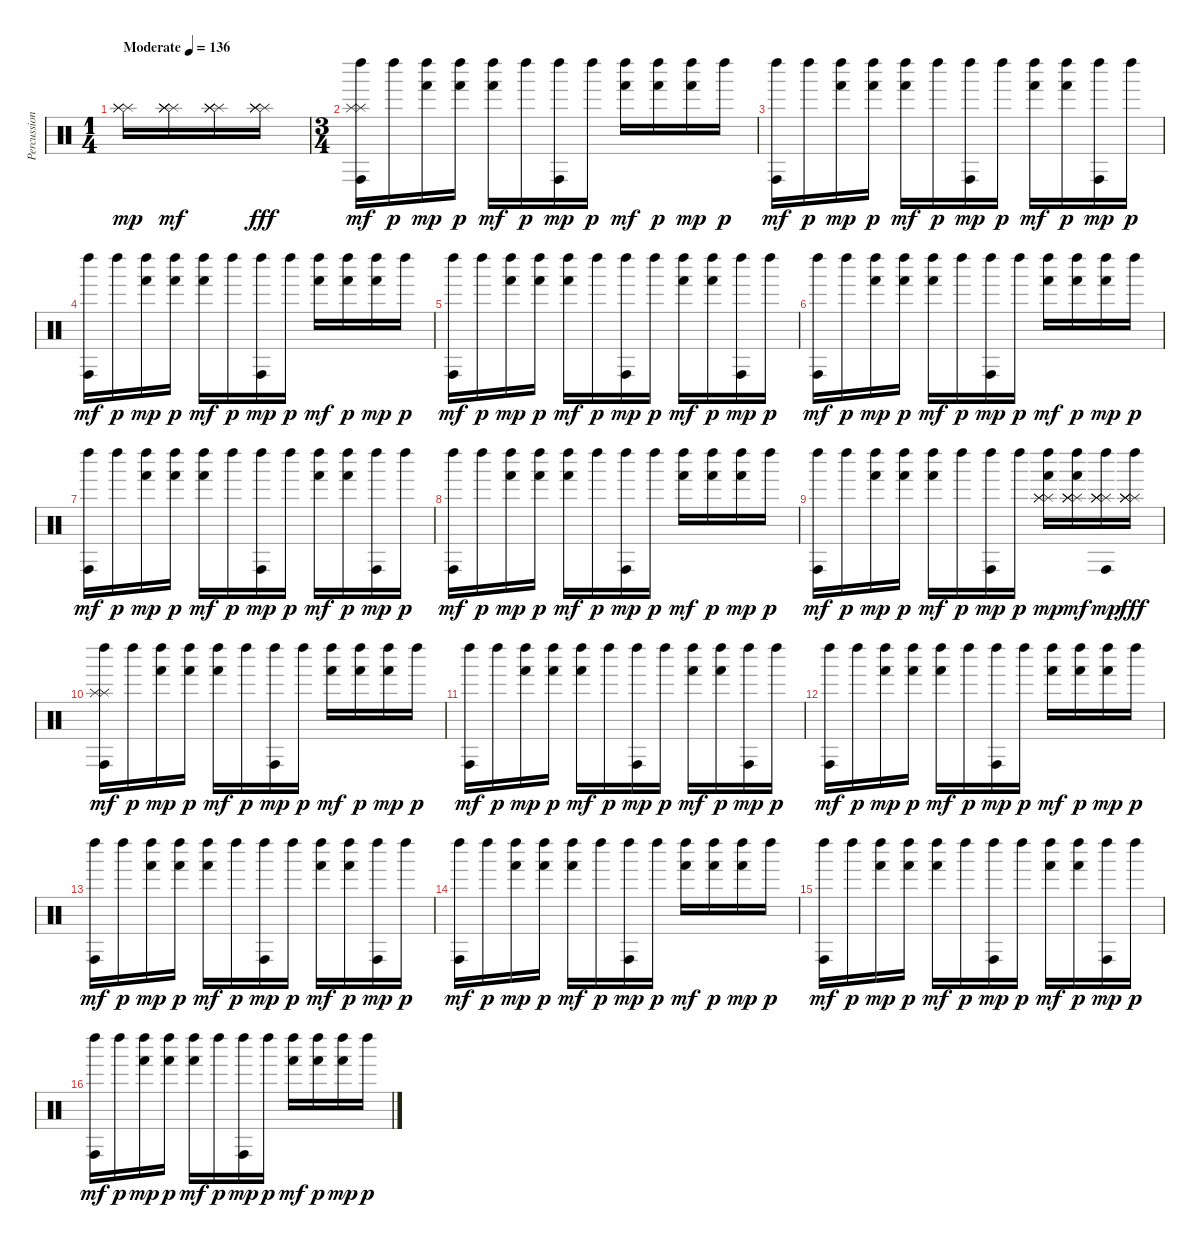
\track ("Percussion" "Percussion") {instrument percussion}
\staff {score}
\articulation defaults
\ts (1 4)
\tempo (136 "Moderate")
\clef neutral
\ks c
("Splash (hit)" "Splash (hit)" "Splash (hit)").16{dy mp} ("Splash (hit)" "Splash (hit)" "Splash (hit)" "Splash (hit)").16{dy mf} ("Splash (hit)" "Splash (hit)" "Splash (hit)" "Splash (hit)").16 ("Splash (hit)" "Splash (hit)" "Splash (hit)" "Splash (hit)").16{dy fff} |
\ts (3 4)
("Splash (hit)" "Splash (hit)" "Conga high (hit)" "Left Maraca (hit)").16{dy mf} "Left Maraca (hit)".16{dy p} ("Hand (hit)" "Left Maraca (hit)").16{dy mp} ("Hand (hit)" "Left Maraca (hit)").16{dy p} ("Hand (hit)" "Left Maraca (hit)").16{dy mf} "Left Maraca (hit)".16{dy p} ("Conga high (hit)" "Left Maraca (hit)").16{dy mp} "Left Maraca (hit)".16{dy p} ("Hand (hit)" "Left Maraca (hit)").16{dy mf} ("Hand (hit)" "Left Maraca (hit)").16{dy p} ("Hand (hit)" "Left Maraca (hit)").16{dy mp} "Left Maraca (hit)".16{dy p} |
("Conga high (hit)" "Left Maraca (hit)").16{dy mf} "Left Maraca (hit)".16{dy p} ("Hand (hit)" "Left Maraca (hit)").16{dy mp} ("Hand (hit)" "Left Maraca (hit)").16{dy p} ("Hand (hit)" "Left Maraca (hit)").16{dy mf} "Left Maraca (hit)".16{dy p} ("Conga high (hit)" "Left Maraca (hit)").16{dy mp} "Left Maraca (hit)".16{dy p} ("Hand (hit)" "Left Maraca (hit)").16{dy mf} ("Hand (hit)" "Left Maraca (hit)").16{dy p} ("Conga high (hit)" "Left Maraca (hit)").16{dy mp} "Left Maraca (hit)".16{dy p} |
("Conga high (hit)" "Left Maraca (hit)").16{dy mf} "Left Maraca (hit)".16{dy p} ("Hand (hit)" "Left Maraca (hit)").16{dy mp} ("Hand (hit)" "Left Maraca (hit)").16{dy p} ("Hand (hit)" "Left Maraca (hit)").16{dy mf} "Left Maraca (hit)".16{dy p} ("Conga high (hit)" "Left Maraca (hit)").16{dy mp} "Left Maraca (hit)".16{dy p} ("Hand (hit)" "Left Maraca (hit)").16{dy mf} ("Hand (hit)" "Left Maraca (hit)").16{dy p} ("Hand (hit)" "Left Maraca (hit)").16{dy mp} "Left Maraca (hit)".16{dy p} |
("Conga high (hit)" "Left Maraca (hit)").16{dy mf} "Left Maraca (hit)".16{dy p} ("Hand (hit)" "Left Maraca (hit)").16{dy mp} ("Hand (hit)" "Left Maraca (hit)").16{dy p} ("Hand (hit)" "Left Maraca (hit)").16{dy mf} "Left Maraca (hit)".16{dy p} ("Conga high (hit)" "Left Maraca (hit)").16{dy mp} "Left Maraca (hit)".16{dy p} ("Hand (hit)" "Left Maraca (hit)").16{dy mf} ("Hand (hit)" "Left Maraca (hit)").16{dy p} ("Conga high (hit)" "Left Maraca (hit)").16{dy mp} "Left Maraca (hit)".16{dy p} |
("Conga high (hit)" "Left Maraca (hit)").16{dy mf} "Left Maraca (hit)".16{dy p} ("Hand (hit)" "Left Maraca (hit)").16{dy mp} ("Hand (hit)" "Left Maraca (hit)").16{dy p} ("Hand (hit)" "Left Maraca (hit)").16{dy mf} "Left Maraca (hit)".16{dy p} ("Conga high (hit)" "Left Maraca (hit)").16{dy mp} "Left Maraca (hit)".16{dy p} ("Hand (hit)" "Left Maraca (hit)").16{dy mf} ("Hand (hit)" "Left Maraca (hit)").16{dy p} ("Hand (hit)" "Left Maraca (hit)").16{dy mp} "Left Maraca (hit)".16{dy p} |
("Conga high (hit)" "Left Maraca (hit)").16{dy mf} "Left Maraca (hit)".16{dy p} ("Hand (hit)" "Left Maraca (hit)").16{dy mp} ("Hand (hit)" "Left Maraca (hit)").16{dy p} ("Hand (hit)" "Left Maraca (hit)").16{dy mf} "Left Maraca (hit)".16{dy p} ("Conga high (hit)" "Left Maraca (hit)").16{dy mp} "Left Maraca (hit)".16{dy p} ("Hand (hit)" "Left Maraca (hit)").16{dy mf} ("Hand (hit)" "Left Maraca (hit)").16{dy p} ("Conga high (hit)" "Left Maraca (hit)").16{dy mp} "Left Maraca (hit)".16{dy p} |
("Conga high (hit)" "Left Maraca (hit)").16{dy mf} "Left Maraca (hit)".16{dy p} ("Hand (hit)" "Left Maraca (hit)").16{dy mp} ("Hand (hit)" "Left Maraca (hit)").16{dy p} ("Hand (hit)" "Left Maraca (hit)").16{dy mf} "Left Maraca (hit)".16{dy p} ("Conga high (hit)" "Left Maraca (hit)").16{dy mp} "Left Maraca (hit)".16{dy p} ("Hand (hit)" "Left Maraca (hit)").16{dy mf} ("Hand (hit)" "Left Maraca (hit)").16{dy p} ("Hand (hit)" "Left Maraca (hit)").16{dy mp} "Left Maraca (hit)".16{dy p} |
("Conga high (hit)" "Left Maraca (hit)").16{dy mf} "Left Maraca (hit)".16{dy p} ("Hand (hit)" "Left Maraca (hit)").16{dy mp} ("Hand (hit)" "Left Maraca (hit)").16{dy p} ("Hand (hit)" "Left Maraca (hit)").16{dy mf} "Left Maraca (hit)".16{dy p} ("Conga high (hit)" "Left Maraca (hit)").16{dy mp} "Left Maraca (hit)".16{dy p} ("Hand (hit)" "Splash (hit)" "Left Maraca (hit)" "Splash (hit)" "Splash (hit)").16{dy mp} ("Splash (hit)" "Hand (hit)" "Splash (hit)" "Left Maraca (hit)" "Splash (hit)" "Splash (hit)").16{dy mf} ("Splash (hit)" "Conga high (hit)" "Splash (hit)" "Left Maraca (hit)" "Splash (hit)" "Splash (hit)").16{dy mp} ("Splash (hit)" "Splash (hit)" "Left Maraca (hit)" "Splash (hit)" "Splash (hit)").16{dy fff} |
("Splash (hit)" "Splash (hit)" "Conga high (hit)" "Left Maraca (hit)").16{dy mf} "Left Maraca (hit)".16{dy p} ("Hand (hit)" "Left Maraca (hit)").16{dy mp} ("Hand (hit)" "Left Maraca (hit)").16{dy p} ("Hand (hit)" "Left Maraca (hit)").16{dy mf} "Left Maraca (hit)".16{dy p} ("Conga high (hit)" "Left Maraca (hit)").16{dy mp} "Left Maraca (hit)".16{dy p} ("Hand (hit)" "Left Maraca (hit)").16{dy mf} ("Hand (hit)" "Left Maraca (hit)").16{dy p} ("Hand (hit)" "Left Maraca (hit)").16{dy mp} "Left Maraca (hit)".16{dy p} |
("Conga high (hit)" "Left Maraca (hit)").16{dy mf} "Left Maraca (hit)".16{dy p} ("Hand (hit)" "Left Maraca (hit)").16{dy mp} ("Hand (hit)" "Left Maraca (hit)").16{dy p} ("Hand (hit)" "Left Maraca (hit)").16{dy mf} "Left Maraca (hit)".16{dy p} ("Conga high (hit)" "Left Maraca (hit)").16{dy mp} "Left Maraca (hit)".16{dy p} ("Hand (hit)" "Left Maraca (hit)").16{dy mf} ("Hand (hit)" "Left Maraca (hit)").16{dy p} ("Conga high (hit)" "Left Maraca (hit)").16{dy mp} "Left Maraca (hit)".16{dy p} |
("Conga high (hit)" "Left Maraca (hit)").16{dy mf} "Left Maraca (hit)".16{dy p} ("Hand (hit)" "Left Maraca (hit)").16{dy mp} ("Hand (hit)" "Left Maraca (hit)").16{dy p} ("Hand (hit)" "Left Maraca (hit)").16{dy mf} "Left Maraca (hit)".16{dy p} ("Conga high (hit)" "Left Maraca (hit)").16{dy mp} "Left Maraca (hit)".16{dy p} ("Hand (hit)" "Left Maraca (hit)").16{dy mf} ("Hand (hit)" "Left Maraca (hit)").16{dy p} ("Hand (hit)" "Left Maraca (hit)").16{dy mp} "Left Maraca (hit)".16{dy p} |
("Conga high (hit)" "Left Maraca (hit)").16{dy mf} "Left Maraca (hit)".16{dy p} ("Hand (hit)" "Left Maraca (hit)").16{dy mp} ("Hand (hit)" "Left Maraca (hit)").16{dy p} ("Hand (hit)" "Left Maraca (hit)").16{dy mf} "Left Maraca (hit)".16{dy p} ("Conga high (hit)" "Left Maraca (hit)").16{dy mp} "Left Maraca (hit)".16{dy p} ("Hand (hit)" "Left Maraca (hit)").16{dy mf} ("Hand (hit)" "Left Maraca (hit)").16{dy p} ("Conga high (hit)" "Left Maraca (hit)").16{dy mp} "Left Maraca (hit)".16{dy p} |
("Conga high (hit)" "Left Maraca (hit)").16{dy mf} "Left Maraca (hit)".16{dy p} ("Hand (hit)" "Left Maraca (hit)").16{dy mp} ("Hand (hit)" "Left Maraca (hit)").16{dy p} ("Hand (hit)" "Left Maraca (hit)").16{dy mf} "Left Maraca (hit)".16{dy p} ("Conga high (hit)" "Left Maraca (hit)").16{dy mp} "Left Maraca (hit)".16{dy p} ("Hand (hit)" "Left Maraca (hit)").16{dy mf} ("Hand (hit)" "Left Maraca (hit)").16{dy p} ("Hand (hit)" "Left Maraca (hit)").16{dy mp} "Left Maraca (hit)".16{dy p} |
("Conga high (hit)" "Left Maraca (hit)").16{dy mf} "Left Maraca (hit)".16{dy p} ("Hand (hit)" "Left Maraca (hit)").16{dy mp} ("Hand (hit)" "Left Maraca (hit)").16{dy p} ("Hand (hit)" "Left Maraca (hit)").16{dy mf} "Left Maraca (hit)".16{dy p} ("Conga high (hit)" "Left Maraca (hit)").16{dy mp} "Left Maraca (hit)".16{dy p} ("Hand (hit)" "Left Maraca (hit)").16{dy mf} ("Hand (hit)" "Left Maraca (hit)").16{dy p} ("Conga high (hit)" "Left Maraca (hit)").16{dy mp} "Left Maraca (hit)".16{dy p} |
("Conga high (hit)" "Left Maraca (hit)").16{dy mf} "Left Maraca (hit)".16{dy p} ("Hand (hit)" "Left Maraca (hit)").16{dy mp} ("Hand (hit)" "Left Maraca (hit)").16{dy p} ("Hand (hit)" "Left Maraca (hit)").16{dy mf} "Left Maraca (hit)".16{dy p} ("Conga high (hit)" "Left Maraca (hit)").16{dy mp} "Left Maraca (hit)".16{dy p} ("Hand (hit)" "Left Maraca (hit)").16{dy mf} ("Hand (hit)" "Left Maraca (hit)").16{dy p} ("Hand (hit)" "Left Maraca (hit)").16{dy mp} "Left Maraca (hit)".16{dy p}
